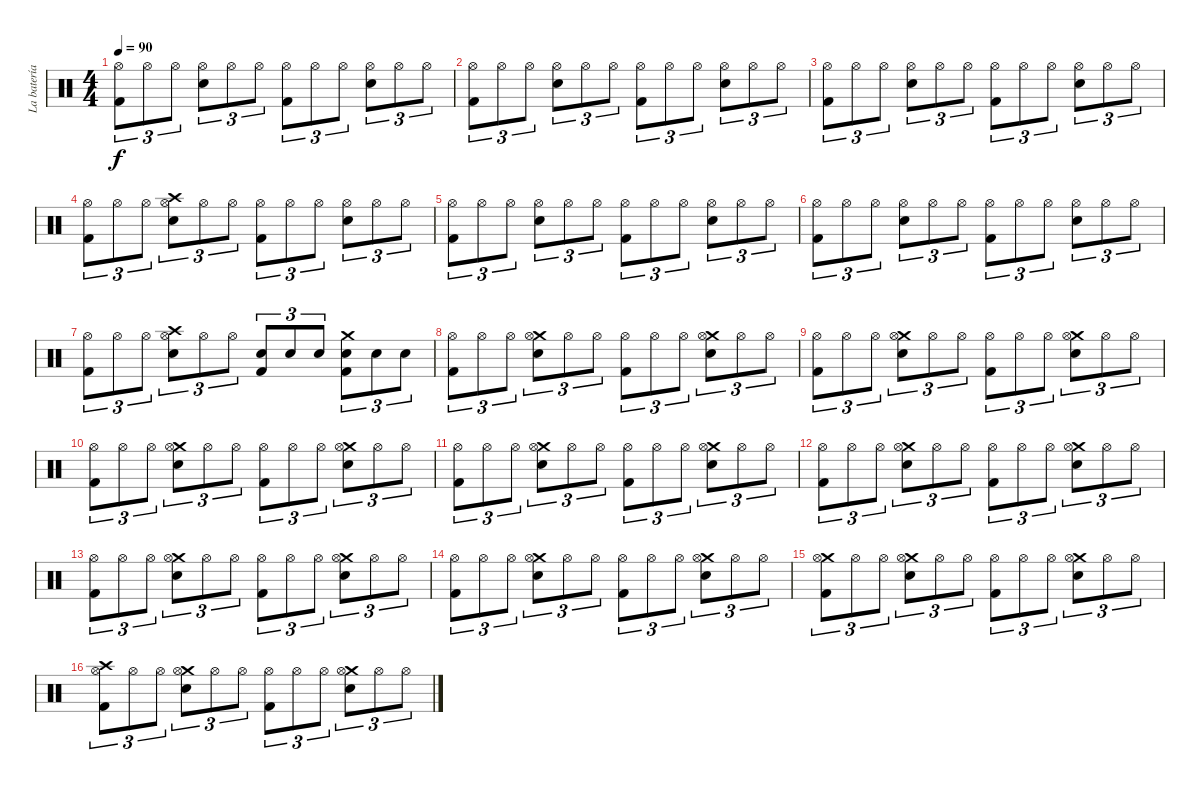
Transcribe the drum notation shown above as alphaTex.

\track ("La batería (con dos huevos xD)" "La batería") {instrument percussion}
\staff {score}
\articulation defaults
\ts (4 4)
\tempo 90
\clef neutral
\ks c
("Hi-Hat (open)" "Kick (hit) 2").8{tu (3 2) dy f} "Hi-Hat (open)".8{tu (3 2)} "Hi-Hat (open)".8{tu (3 2)} ("Hi-Hat (open)" "Electric Snare (hit)").8{tu (3 2)} "Hi-Hat (open)".8{tu (3 2)} "Hi-Hat (open)".8{tu (3 2)} ("Hi-Hat (open)" "Kick (hit) 2").8{tu (3 2)} "Hi-Hat (open)".8{tu (3 2)} "Hi-Hat (open)".8{tu (3 2)} ("Hi-Hat (open)" "Electric Snare (hit)").8{tu (3 2)} "Hi-Hat (open)".8{tu (3 2)} "Hi-Hat (open)".8{tu (3 2)} |
("Hi-Hat (open)" "Kick (hit) 2").8{tu (3 2)} "Hi-Hat (open)".8{tu (3 2)} "Hi-Hat (open)".8{tu (3 2)} ("Hi-Hat (open)" "Electric Snare (hit)").8{tu (3 2)} "Hi-Hat (open)".8{tu (3 2)} "Hi-Hat (open)".8{tu (3 2)} ("Hi-Hat (open)" "Kick (hit) 2").8{tu (3 2)} "Hi-Hat (open)".8{tu (3 2)} "Hi-Hat (open)".8{tu (3 2)} ("Hi-Hat (open)" "Electric Snare (hit)").8{tu (3 2)} "Hi-Hat (open)".8{tu (3 2)} "Hi-Hat (open)".8{tu (3 2)} |
("Hi-Hat (open)" "Kick (hit) 2").8{tu (3 2)} "Hi-Hat (open)".8{tu (3 2)} "Hi-Hat (open)".8{tu (3 2)} ("Hi-Hat (open)" "Electric Snare (hit)").8{tu (3 2)} "Hi-Hat (open)".8{tu (3 2)} "Hi-Hat (open)".8{tu (3 2)} ("Hi-Hat (open)" "Kick (hit) 2").8{tu (3 2)} "Hi-Hat (open)".8{tu (3 2)} "Hi-Hat (open)".8{tu (3 2)} ("Hi-Hat (open)" "Electric Snare (hit)").8{tu (3 2)} "Hi-Hat (open)".8{tu (3 2)} "Hi-Hat (open)".8{tu (3 2)} |
("Hi-Hat (open)" "Kick (hit) 2").8{tu (3 2)} "Hi-Hat (open)".8{tu (3 2)} "Hi-Hat (open)".8{tu (3 2)} ("Crash high (hit)" "Hi-Hat (open)" "Electric Snare (hit)").8{tu (3 2)} "Hi-Hat (open)".8{tu (3 2)} "Hi-Hat (open)".8{tu (3 2)} ("Hi-Hat (open)" "Kick (hit) 2").8{tu (3 2)} "Hi-Hat (open)".8{tu (3 2)} "Hi-Hat (open)".8{tu (3 2)} ("Hi-Hat (open)" "Electric Snare (hit)").8{tu (3 2)} "Hi-Hat (open)".8{tu (3 2)} "Hi-Hat (open)".8{tu (3 2)} |
("Hi-Hat (open)" "Kick (hit) 2").8{tu (3 2)} "Hi-Hat (open)".8{tu (3 2)} "Hi-Hat (open)".8{tu (3 2)} ("Hi-Hat (open)" "Electric Snare (hit)").8{tu (3 2)} "Hi-Hat (open)".8{tu (3 2)} "Hi-Hat (open)".8{tu (3 2)} ("Hi-Hat (open)" "Kick (hit) 2").8{tu (3 2)} "Hi-Hat (open)".8{tu (3 2)} "Hi-Hat (open)".8{tu (3 2)} ("Hi-Hat (open)" "Electric Snare (hit)").8{tu (3 2)} "Hi-Hat (open)".8{tu (3 2)} "Hi-Hat (open)".8{tu (3 2)} |
("Hi-Hat (open)" "Kick (hit) 2").8{tu (3 2)} "Hi-Hat (open)".8{tu (3 2)} "Hi-Hat (open)".8{tu (3 2)} ("Hi-Hat (open)" "Electric Snare (hit)").8{tu (3 2)} "Hi-Hat (open)".8{tu (3 2)} "Hi-Hat (open)".8{tu (3 2)} ("Hi-Hat (open)" "Kick (hit) 2").8{tu (3 2)} "Hi-Hat (open)".8{tu (3 2)} "Hi-Hat (open)".8{tu (3 2)} ("Hi-Hat (open)" "Electric Snare (hit)").8{tu (3 2)} "Hi-Hat (open)".8{tu (3 2)} "Hi-Hat (open)".8{tu (3 2)} |
("Hi-Hat (open)" "Kick (hit) 2").8{tu (3 2)} "Hi-Hat (open)".8{tu (3 2)} "Hi-Hat (open)".8{tu (3 2)} ("Crash high (hit)" "Hi-Hat (open)" "Electric Snare (hit)").8{tu (3 2)} "Hi-Hat (open)".8{tu (3 2)} "Hi-Hat (open)".8{tu (3 2)} ("Electric Snare (hit)" "Kick (hit) 2").8{tu (3 2)} "Electric Snare (hit)".8{tu (3 2)} "Electric Snare (hit)".8{tu (3 2)} ("Crash medium (hit)" "Electric Snare (hit)" "Kick (hit) 2").8{tu (3 2)} "Electric Snare (hit)".8{tu (3 2)} "Electric Snare (hit)".8{tu (3 2)} |
("Hi-Hat (open)" "Kick (hit) 2").8{tu (3 2)} "Hi-Hat (open)".8{tu (3 2)} "Hi-Hat (open)".8{tu (3 2)} ("Crash medium (hit)" "Hi-Hat (open)" "Electric Snare (hit)").8{tu (3 2)} "Hi-Hat (open)".8{tu (3 2)} "Hi-Hat (open)".8{tu (3 2)} ("Hi-Hat (open)" "Kick (hit) 2").8{tu (3 2)} "Hi-Hat (open)".8{tu (3 2)} "Hi-Hat (open)".8{tu (3 2)} ("Crash medium (hit)" "Hi-Hat (open)" "Electric Snare (hit)").8{tu (3 2)} "Hi-Hat (open)".8{tu (3 2)} "Hi-Hat (open)".8{tu (3 2)} |
("Hi-Hat (open)" "Kick (hit) 2").8{tu (3 2)} "Hi-Hat (open)".8{tu (3 2)} "Hi-Hat (open)".8{tu (3 2)} ("Crash medium (hit)" "Hi-Hat (open)" "Electric Snare (hit)").8{tu (3 2)} "Hi-Hat (open)".8{tu (3 2)} "Hi-Hat (open)".8{tu (3 2)} ("Hi-Hat (open)" "Kick (hit) 2").8{tu (3 2)} "Hi-Hat (open)".8{tu (3 2)} "Hi-Hat (open)".8{tu (3 2)} ("Crash medium (hit)" "Hi-Hat (open)" "Electric Snare (hit)").8{tu (3 2)} "Hi-Hat (open)".8{tu (3 2)} "Hi-Hat (open)".8{tu (3 2)} |
("Hi-Hat (open)" "Kick (hit) 2").8{tu (3 2)} "Hi-Hat (open)".8{tu (3 2)} "Hi-Hat (open)".8{tu (3 2)} ("Crash medium (hit)" "Hi-Hat (open)" "Electric Snare (hit)").8{tu (3 2)} "Hi-Hat (open)".8{tu (3 2)} "Hi-Hat (open)".8{tu (3 2)} ("Hi-Hat (open)" "Kick (hit) 2").8{tu (3 2)} "Hi-Hat (open)".8{tu (3 2)} "Hi-Hat (open)".8{tu (3 2)} ("Crash medium (hit)" "Hi-Hat (open)" "Electric Snare (hit)").8{tu (3 2)} "Hi-Hat (open)".8{tu (3 2)} "Hi-Hat (open)".8{tu (3 2)} |
("Hi-Hat (open)" "Kick (hit) 2").8{tu (3 2)} "Hi-Hat (open)".8{tu (3 2)} "Hi-Hat (open)".8{tu (3 2)} ("Crash medium (hit)" "Hi-Hat (open)" "Electric Snare (hit)").8{tu (3 2)} "Hi-Hat (open)".8{tu (3 2)} "Hi-Hat (open)".8{tu (3 2)} ("Hi-Hat (open)" "Kick (hit) 2").8{tu (3 2)} "Hi-Hat (open)".8{tu (3 2)} "Hi-Hat (open)".8{tu (3 2)} ("Crash medium (hit)" "Hi-Hat (open)" "Electric Snare (hit)").8{tu (3 2)} "Hi-Hat (open)".8{tu (3 2)} "Hi-Hat (open)".8{tu (3 2)} |
("Hi-Hat (open)" "Kick (hit) 2").8{tu (3 2)} "Hi-Hat (open)".8{tu (3 2)} "Hi-Hat (open)".8{tu (3 2)} ("Crash medium (hit)" "Hi-Hat (open)" "Electric Snare (hit)").8{tu (3 2)} "Hi-Hat (open)".8{tu (3 2)} "Hi-Hat (open)".8{tu (3 2)} ("Hi-Hat (open)" "Kick (hit) 2").8{tu (3 2)} "Hi-Hat (open)".8{tu (3 2)} "Hi-Hat (open)".8{tu (3 2)} ("Crash medium (hit)" "Hi-Hat (open)" "Electric Snare (hit)").8{tu (3 2)} "Hi-Hat (open)".8{tu (3 2)} "Hi-Hat (open)".8{tu (3 2)} |
("Hi-Hat (open)" "Kick (hit) 2").8{tu (3 2)} "Hi-Hat (open)".8{tu (3 2)} "Hi-Hat (open)".8{tu (3 2)} ("Crash medium (hit)" "Hi-Hat (open)" "Electric Snare (hit)").8{tu (3 2)} "Hi-Hat (open)".8{tu (3 2)} "Hi-Hat (open)".8{tu (3 2)} ("Hi-Hat (open)" "Kick (hit) 2").8{tu (3 2)} "Hi-Hat (open)".8{tu (3 2)} "Hi-Hat (open)".8{tu (3 2)} ("Crash medium (hit)" "Hi-Hat (open)" "Electric Snare (hit)").8{tu (3 2)} "Hi-Hat (open)".8{tu (3 2)} "Hi-Hat (open)".8{tu (3 2)} |
("Hi-Hat (open)" "Kick (hit) 2").8{tu (3 2)} "Hi-Hat (open)".8{tu (3 2)} "Hi-Hat (open)".8{tu (3 2)} ("Crash medium (hit)" "Hi-Hat (open)" "Electric Snare (hit)").8{tu (3 2)} "Hi-Hat (open)".8{tu (3 2)} "Hi-Hat (open)".8{tu (3 2)} ("Hi-Hat (open)" "Kick (hit) 2").8{tu (3 2)} "Hi-Hat (open)".8{tu (3 2)} "Hi-Hat (open)".8{tu (3 2)} ("Crash medium (hit)" "Hi-Hat (open)" "Electric Snare (hit)").8{tu (3 2)} "Hi-Hat (open)".8{tu (3 2)} "Hi-Hat (open)".8{tu (3 2)} |
("Crash medium (hit)" "Hi-Hat (open)" "Kick (hit) 2").8{tu (3 2)} "Hi-Hat (open)".8{tu (3 2)} "Hi-Hat (open)".8{tu (3 2)} ("Crash medium (hit)" "Hi-Hat (open)" "Electric Snare (hit)").8{tu (3 2)} "Hi-Hat (open)".8{tu (3 2)} "Hi-Hat (open)".8{tu (3 2)} ("Hi-Hat (open)" "Kick (hit) 2").8{tu (3 2)} "Hi-Hat (open)".8{tu (3 2)} "Hi-Hat (open)".8{tu (3 2)} ("Crash medium (hit)" "Hi-Hat (open)" "Electric Snare (hit)").8{tu (3 2)} "Hi-Hat (open)".8{tu (3 2)} "Hi-Hat (open)".8{tu (3 2)} |
("Crash high (hit)" "Hi-Hat (open)" "Kick (hit) 2").8{tu (3 2)} "Hi-Hat (open)".8{tu (3 2)} "Hi-Hat (open)".8{tu (3 2)} ("Crash medium (hit)" "Hi-Hat (open)" "Electric Snare (hit)").8{tu (3 2)} "Hi-Hat (open)".8{tu (3 2)} "Hi-Hat (open)".8{tu (3 2)} ("Hi-Hat (open)" "Kick (hit) 2").8{tu (3 2)} "Hi-Hat (open)".8{tu (3 2)} "Hi-Hat (open)".8{tu (3 2)} ("Crash medium (hit)" "Hi-Hat (open)" "Electric Snare (hit)").8{tu (3 2)} "Hi-Hat (open)".8{tu (3 2)} "Hi-Hat (open)".8{tu (3 2)}
